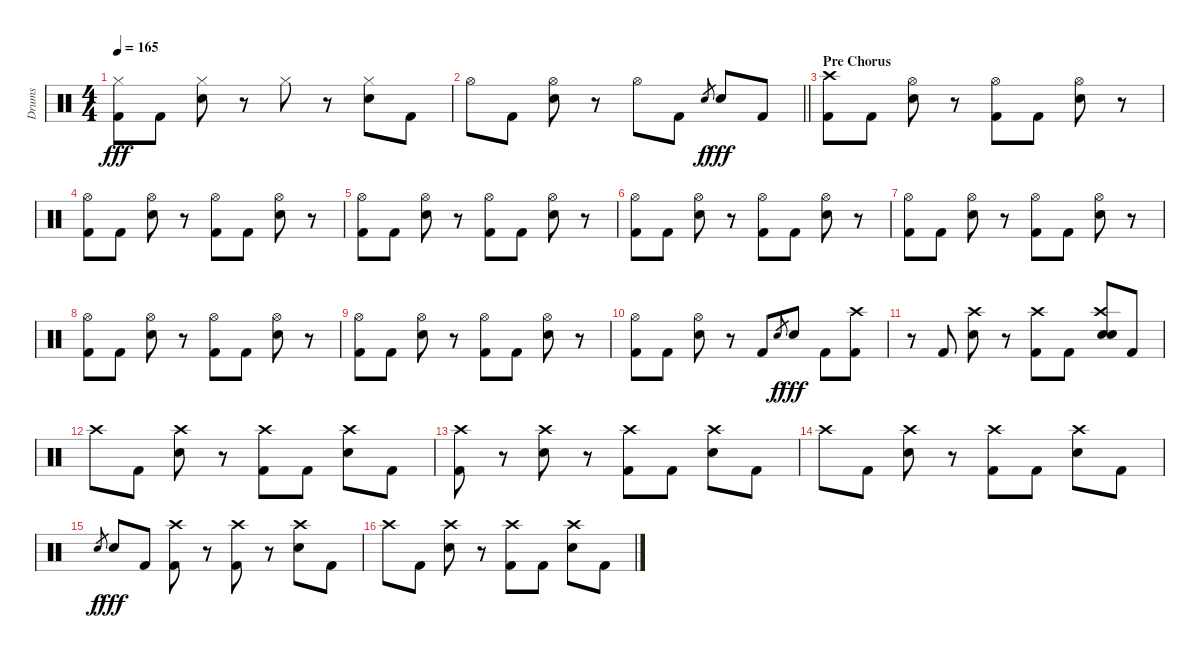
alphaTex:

\track ("Drums" "Drums") {instrument percussion}
\staff {score}
\articulation defaults
\ts (4 4)
\tempo 165
\clef neutral
\ks c
("Hi-Hat (closed)" "Kick (hit) 2").8{dy fff} "Kick (hit) 2".8 ("Hi-Hat (closed)" "Electric Snare (hit)").8 r.8 "Hi-Hat (closed)".8 r.8 ("Hi-Hat (closed)" "Electric Snare (hit)").8 "Kick (hit) 2".8 |
\barLineRight lightlight "Hi-Hat (open)".8 "Kick (hit) 2".8
("Hi-Hat (open)" "Electric Snare (hit)").8 r.8 "Hi-Hat (open)".8 "Kick (hit) 2".8 "Electric Snare (hit)".8{gr dy f} "Electric Snare (hit)".8{dy fff} "Kick (hit) 2".8 |
\section ("" "Pre Chorus")
("Crash high (hit)" "Kick (hit) 2").8 "Kick (hit) 2".8 ("Hi-Hat (open)" "Electric Snare (hit)").8 r.8 ("Hi-Hat (open)" "Kick (hit) 2").8 "Kick (hit) 2".8 ("Hi-Hat (open)" "Electric Snare (hit)").8 r.8 |
("Hi-Hat (open)" "Kick (hit) 2").8 "Kick (hit) 2".8 ("Hi-Hat (open)" "Electric Snare (hit)").8 r.8 ("Hi-Hat (open)" "Kick (hit) 2").8 "Kick (hit) 2".8 ("Hi-Hat (open)" "Electric Snare (hit)").8 r.8 |
("Hi-Hat (open)" "Kick (hit) 2").8 "Kick (hit) 2".8 ("Hi-Hat (open)" "Electric Snare (hit)").8 r.8 ("Hi-Hat (open)" "Kick (hit) 2").8 "Kick (hit) 2".8 ("Hi-Hat (open)" "Electric Snare (hit)").8 r.8 |
("Hi-Hat (open)" "Kick (hit) 2").8 "Kick (hit) 2".8 ("Hi-Hat (open)" "Electric Snare (hit)").8 r.8 ("Hi-Hat (open)" "Kick (hit) 2").8 "Kick (hit) 2".8 ("Hi-Hat (open)" "Electric Snare (hit)").8 r.8 |
("Hi-Hat (open)" "Kick (hit) 2").8 "Kick (hit) 2".8 ("Hi-Hat (open)" "Electric Snare (hit)").8 r.8 ("Hi-Hat (open)" "Kick (hit) 2").8 "Kick (hit) 2".8 ("Hi-Hat (open)" "Electric Snare (hit)").8 r.8 |
("Hi-Hat (open)" "Kick (hit) 2").8 "Kick (hit) 2".8 ("Hi-Hat (open)" "Electric Snare (hit)").8 r.8 ("Hi-Hat (open)" "Kick (hit) 2").8 "Kick (hit) 2".8 ("Hi-Hat (open)" "Electric Snare (hit)").8 r.8 |
("Hi-Hat (open)" "Kick (hit) 2").8 "Kick (hit) 2".8 ("Hi-Hat (open)" "Electric Snare (hit)").8 r.8 ("Hi-Hat (open)" "Kick (hit) 2").8 "Kick (hit) 2".8 ("Hi-Hat (open)" "Electric Snare (hit)").8 r.8 |
("Hi-Hat (open)" "Kick (hit) 2").8 "Kick (hit) 2".8 ("Hi-Hat (open)" "Electric Snare (hit)").8 r.8 "Kick (hit) 2".8 "Electric Snare (hit)".8{gr dy f} "Electric Snare (hit)".8{dy fff} "Kick (hit) 2".8 ("Crash high (hit)" "Kick (hit) 2").8 |
r.8 "Kick (hit) 2".8 ("Crash high (hit)" "Electric Snare (hit)").8 r.8 ("Crash high (hit)" "Kick (hit) 2").8 "Kick (hit) 2".8 ("Crash high (hit)" "Electric Snare (hit)" "Snare (hit)").8 "Kick (hit) 2".8 |
"Crash high (hit)".8 "Kick (hit) 2".8 ("Crash high (hit)" "Electric Snare (hit)").8 r.8 ("Crash high (hit)" "Kick (hit) 2").8 "Kick (hit) 2".8 ("Crash high (hit)" "Electric Snare (hit)").8 "Kick (hit) 2".8 |
("Crash high (hit)" "Kick (hit) 2").8 r.8 ("Crash high (hit)" "Electric Snare (hit)").8 r.8 ("Crash high (hit)" "Kick (hit) 2").8 "Kick (hit) 2".8 ("Crash high (hit)" "Electric Snare (hit)").8 "Kick (hit) 2".8 |
"Crash high (hit)".8 "Kick (hit) 2".8 ("Crash high (hit)" "Electric Snare (hit)").8 r.8 ("Crash high (hit)" "Kick (hit) 2").8 "Kick (hit) 2".8 ("Crash high (hit)" "Electric Snare (hit)").8 "Kick (hit) 2".8 |
"Electric Snare (hit)".8{gr dy f} "Electric Snare (hit)".8{dy fff} "Kick (hit) 2".8 ("Crash high (hit)" "Kick (hit) 2").8 r.8 ("Crash high (hit)" "Kick (hit) 2").8 r.8 ("Crash high (hit)" "Electric Snare (hit)").8 "Kick (hit) 2".8 |
"Crash high (hit)".8 "Kick (hit) 2".8 ("Crash high (hit)" "Electric Snare (hit)").8 r.8 ("Crash high (hit)" "Kick (hit) 2").8 "Kick (hit) 2".8 ("Crash high (hit)" "Electric Snare (hit)").8 "Kick (hit) 2".8
